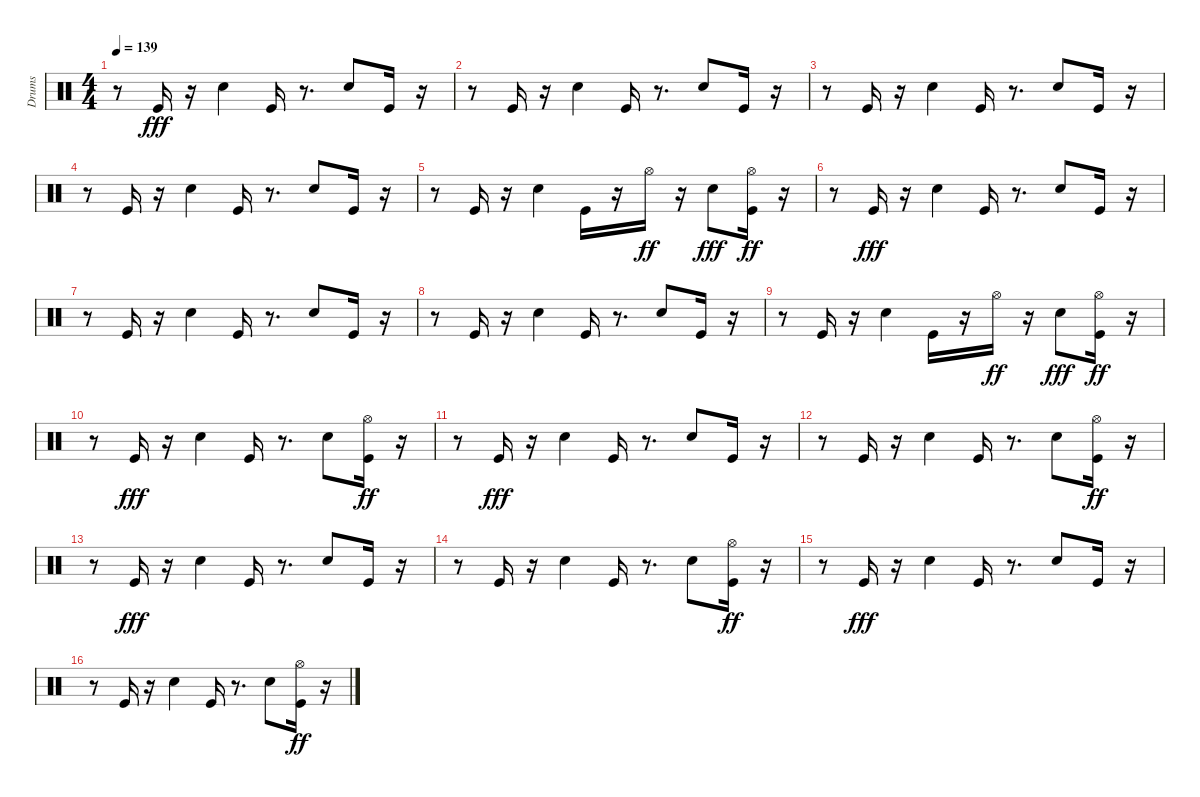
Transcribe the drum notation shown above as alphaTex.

\track ("Drums" "Drums") {instrument percussion}
\staff {score}
\articulation defaults
\ts (4 4)
\tempo 139
\clef neutral
\ks c
r.8{dy fff} "Kick (hit)".16 r.16 "Snare (hit) 2".4 "Kick (hit)".16 r.8{d} "Snare (hit) 2".8 "Kick (hit)".16 r.16 |
r.8 "Kick (hit)".16 r.16 "Snare (hit) 2".4 "Kick (hit)".16 r.8{d} "Snare (hit) 2".8 "Kick (hit)".16 r.16 |
r.8 "Kick (hit)".16 r.16 "Snare (hit) 2".4 "Kick (hit)".16 r.8{d} "Snare (hit) 2".8 "Kick (hit)".16 r.16 |
r.8 "Kick (hit)".16 r.16 "Snare (hit) 2".4 "Kick (hit)".16 r.8{d} "Snare (hit) 2".8 "Kick (hit)".16 r.16 |
r.8 "Kick (hit)".16 r.16 "Snare (hit) 2".4 "Kick (hit)".16 r.16 "Hi-Hat (open)".16{dy ff} r.16 "Snare (hit) 2".8{dy fff} ("Kick (hit)" "Hi-Hat (open)").16{dy ff} r.16 |
r.8 "Kick (hit)".16{dy fff} r.16 "Snare (hit) 2".4 "Kick (hit)".16 r.8{d} "Snare (hit) 2".8 "Kick (hit)".16 r.16 |
r.8 "Kick (hit)".16 r.16 "Snare (hit) 2".4 "Kick (hit)".16 r.8{d} "Snare (hit) 2".8 "Kick (hit)".16 r.16 |
r.8 "Kick (hit)".16 r.16 "Snare (hit) 2".4 "Kick (hit)".16 r.8{d} "Snare (hit) 2".8 "Kick (hit)".16 r.16 |
r.8 "Kick (hit)".16 r.16 "Snare (hit) 2".4 "Kick (hit)".16 r.16 "Hi-Hat (open)".16{dy ff} r.16 "Snare (hit) 2".8{dy fff} ("Kick (hit)" "Hi-Hat (open)").16{dy ff} r.16 |
r.8 "Kick (hit)".16{dy fff} r.16 "Snare (hit) 2".4 "Kick (hit)".16 r.8{d} "Snare (hit) 2".8 ("Kick (hit)" "Hi-Hat (open)").16{dy ff} r.16 |
r.8 "Kick (hit)".16{dy fff} r.16 "Snare (hit) 2".4 "Kick (hit)".16 r.8{d} "Snare (hit) 2".8 "Kick (hit)".16 r.16 |
r.8 "Kick (hit)".16 r.16 "Snare (hit) 2".4 "Kick (hit)".16 r.8{d} "Snare (hit) 2".8 ("Kick (hit)" "Hi-Hat (open)").16{dy ff} r.16 |
r.8 "Kick (hit)".16{dy fff} r.16 "Snare (hit) 2".4 "Kick (hit)".16 r.8{d} "Snare (hit) 2".8 "Kick (hit)".16 r.16 |
r.8 "Kick (hit)".16 r.16 "Snare (hit) 2".4 "Kick (hit)".16 r.8{d} "Snare (hit) 2".8 ("Kick (hit)" "Hi-Hat (open)").16{dy ff} r.16 |
r.8 "Kick (hit)".16{dy fff} r.16 "Snare (hit) 2".4 "Kick (hit)".16 r.8{d} "Snare (hit) 2".8 "Kick (hit)".16 r.16 |
r.8 "Kick (hit)".16 r.16 "Snare (hit) 2".4 "Kick (hit)".16 r.8{d} "Snare (hit) 2".8 ("Kick (hit)" "Hi-Hat (open)").16{dy ff} r.16
